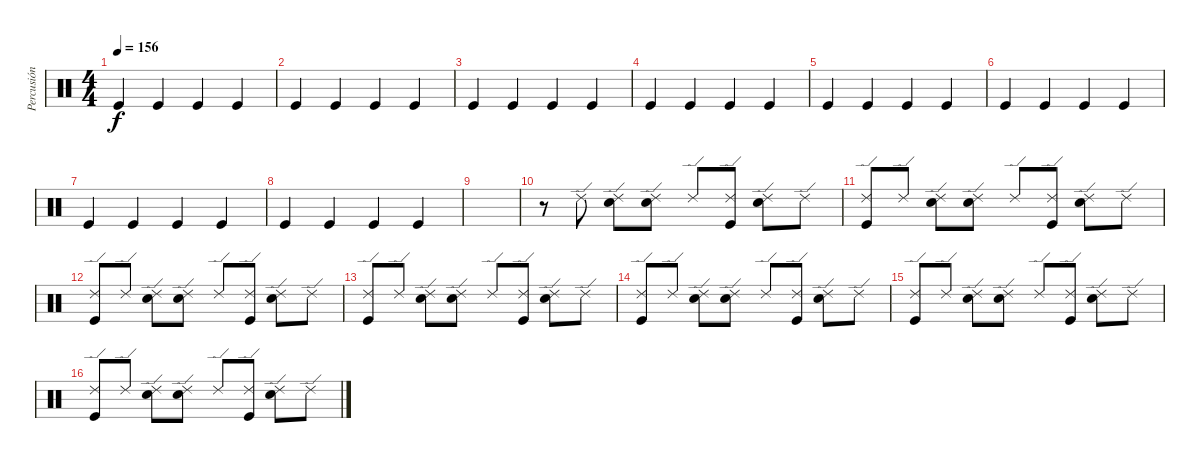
\track ("Percusión" "Percusión") {instrument percussion}
\staff {score}
\articulation defaults
\ts (4 4)
\tempo 156
\clef neutral
\ks c "Kick (hit)".4{dy f} "Kick (hit)".4 "Kick (hit)".4 "Kick (hit)".4
|
"Kick (hit)".4 "Kick (hit)".4 "Kick (hit)".4 "Kick (hit)".4 |
"Kick (hit)".4 "Kick (hit)".4 "Kick (hit)".4 "Kick (hit)".4 |
"Kick (hit)".4 "Kick (hit)".4 "Kick (hit)".4 "Kick (hit)".4 |
"Kick (hit)".4 "Kick (hit)".4 "Kick (hit)".4 "Kick (hit)".4 |
"Kick (hit)".4 "Kick (hit)".4 "Kick (hit)".4 "Kick (hit)".4 |
"Kick (hit)".4 "Kick (hit)".4 "Kick (hit)".4 "Kick (hit)".4 |
"Kick (hit)".4 "Kick (hit)".4 "Kick (hit)".4 "Kick (hit)".4 |
|
r.8 "Ride (edge) 2".8 ("Ride (edge) 2" "Electric Snare (hit)").8 ("Ride (edge) 2" "Electric Snare (hit)").8 "Ride (edge) 2".8 ("Ride (edge) 2" "Kick (hit)").8 ("Ride (edge) 2" "Electric Snare (hit)").8 "Ride (edge) 2".8 |
("Ride (edge) 2" "Kick (hit)").8 "Ride (edge) 2".8 ("Ride (edge) 2" "Electric Snare (hit)").8 ("Ride (edge) 2" "Electric Snare (hit)").8 "Ride (edge) 2".8 ("Ride (edge) 2" "Kick (hit)").8 ("Ride (edge) 2" "Electric Snare (hit)").8 "Ride (edge) 2".8 |
("Ride (edge) 2" "Kick (hit)").8 "Ride (edge) 2".8 ("Ride (edge) 2" "Electric Snare (hit)").8 ("Ride (edge) 2" "Electric Snare (hit)").8 "Ride (edge) 2".8 ("Ride (edge) 2" "Kick (hit)").8 ("Ride (edge) 2" "Electric Snare (hit)").8 "Ride (edge) 2".8 |
("Ride (edge) 2" "Kick (hit)").8 "Ride (edge) 2".8 ("Ride (edge) 2" "Electric Snare (hit)").8 ("Ride (edge) 2" "Electric Snare (hit)").8 "Ride (edge) 2".8 ("Ride (edge) 2" "Kick (hit)").8 ("Ride (edge) 2" "Electric Snare (hit)").8 "Ride (edge) 2".8 |
("Ride (edge) 2" "Kick (hit)").8 "Ride (edge) 2".8 ("Ride (edge) 2" "Electric Snare (hit)").8 ("Ride (edge) 2" "Electric Snare (hit)").8 "Ride (edge) 2".8 ("Ride (edge) 2" "Kick (hit)").8 ("Ride (edge) 2" "Electric Snare (hit)").8 "Ride (edge) 2".8 |
("Ride (edge) 2" "Kick (hit)").8 "Ride (edge) 2".8 ("Ride (edge) 2" "Electric Snare (hit)").8 ("Ride (edge) 2" "Electric Snare (hit)").8 "Ride (edge) 2".8 ("Ride (edge) 2" "Kick (hit)").8 ("Ride (edge) 2" "Electric Snare (hit)").8 "Ride (edge) 2".8 |
("Ride (edge) 2" "Kick (hit)").8 "Ride (edge) 2".8 ("Ride (edge) 2" "Electric Snare (hit)").8 ("Ride (edge) 2" "Electric Snare (hit)").8 "Ride (edge) 2".8 ("Ride (edge) 2" "Kick (hit)").8 ("Ride (edge) 2" "Electric Snare (hit)").8 "Ride (edge) 2".8
